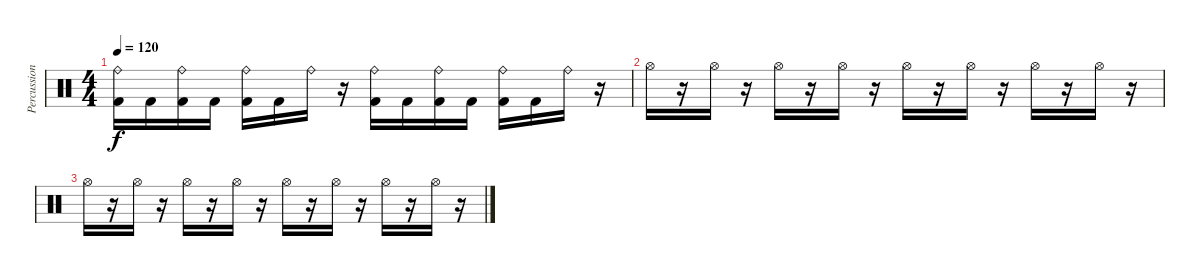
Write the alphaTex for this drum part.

\track ("Percussion" "Percussion") {instrument percussion}
\staff {score}
\articulation defaults
\ts (4 4)
\tempo 120
\clef neutral
\ks c
("Ride (bell)" "Kick (hit) 2").16{dy f} "Kick (hit) 2".16 ("Ride (bell)" "Kick (hit) 2").16 "Kick (hit) 2".16 ("Ride (bell)" "Kick (hit) 2").16 "Kick (hit) 2".16 "Ride (bell)".16 r.16 ("Ride (bell)" "Kick (hit) 2").16 "Kick (hit) 2".16 ("Ride (bell)" "Kick (hit) 2").16 "Kick (hit) 2".16 ("Ride (bell)" "Kick (hit) 2").16 "Kick (hit) 2".16 "Ride (bell)".16 r.16 |
"Hi-Hat (open)".16 r.16 "Hi-Hat (open)".16 r.16 "Hi-Hat (open)".16 r.16 "Hi-Hat (open)".16 r.16 "Hi-Hat (open)".16 r.16 "Hi-Hat (open)".16 r.16 "Hi-Hat (open)".16 r.16 "Hi-Hat (open)".16 r.16 |
"Hi-Hat (open)".16 r.16 "Hi-Hat (open)".16 r.16 "Hi-Hat (open)".16 r.16 "Hi-Hat (open)".16 r.16 "Hi-Hat (open)".16 r.16 "Hi-Hat (open)".16 r.16 "Hi-Hat (open)".16 r.16 "Hi-Hat (open)".16 r.16
